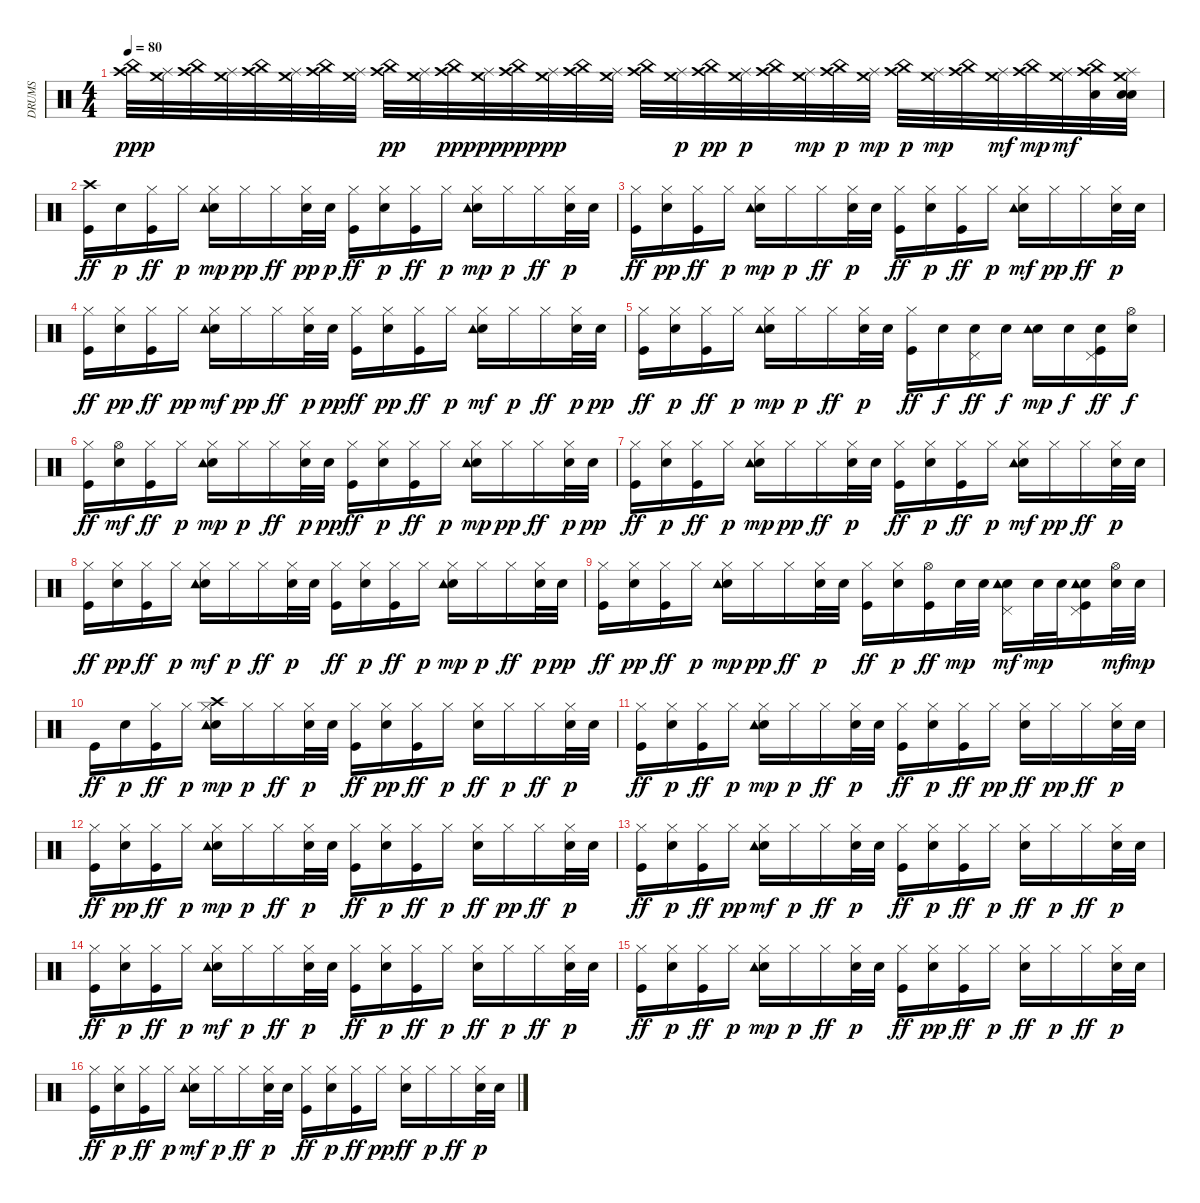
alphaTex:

\track ("DRUMS" "DRUMS") {instrument percussion}
\staff {score}
\articulation defaults
\ts (4 4)
\tempo 80
\clef neutral
\ks c
("Crash high (hit)" "China (hit)").32{dy ppp} ("Splash (hit)" "Crash medium (hit)").32 ("Crash high (hit)" "China (hit)").32 ("Splash (hit)" "Crash medium (hit)").32 ("Crash high (hit)" "China (hit)").32 ("Splash (hit)" "Crash medium (hit)").32 ("Crash high (hit)" "China (hit)").32 ("Splash (hit)" "Crash medium (hit)").32 ("Crash high (hit)" "China (hit)").32{dy pp} ("Splash (hit)" "Crash medium (hit)").32 ("Crash high (hit)" "China (hit)").32{dy ppp} ("Splash (hit)" "Crash medium (hit)").32{dy pp} ("Crash high (hit)" "China (hit)").32{dy ppp} ("Splash (hit)" "Crash medium (hit)").32{dy pp} ("Crash high (hit)" "China (hit)").32 ("Splash (hit)" "Crash medium (hit)").32 ("Crash high (hit)" "China (hit)").32 ("Splash (hit)" "Crash medium (hit)").32{dy p} ("Crash high (hit)" "China (hit)").32{dy pp} ("Splash (hit)" "Crash medium (hit)").32{dy p} ("Crash high (hit)" "China (hit)").32 ("Splash (hit)" "Crash medium (hit)").32{dy mp} ("Crash high (hit)" "China (hit)").32{dy p} ("Splash (hit)" "Crash medium (hit)").32{dy mp} ("Crash high (hit)" "China (hit)").32{dy p} ("Splash (hit)" "Crash medium (hit)").32{dy mp} ("Crash high (hit)" "China (hit)").32 ("Splash (hit)" "Crash medium (hit)").32{dy mf} ("Crash high (hit)" "China (hit)").32{dy mp} ("Splash (hit)" "Crash medium (hit)").32{dy mf} ("Snare (hit) 2" "Crash high (hit)" "China (hit)").32 ("Snare (hit) 2" "Splash (hit)" "Snare (hit) 2" "Crash medium (hit)").32 |
("Kick (hit)" "Crash high (hit)").16{dy ff} "Snare (hit) 2".16{dy p} ("Kick (hit)" "Hi-Hat (closed)").16{dy ff} "Hi-Hat (closed)".16{dy p} ("Snare (hit) 2" "Hi-Hat (closed)" "Tambourine (hit)").16{dy mp} "Hi-Hat (closed)".16{dy pp} "Hi-Hat (closed)".16{dy ff} ("Hi-Hat (closed)" "Snare (hit) 2").32{dy pp} "Snare (hit) 2".32{dy p} ("Kick (hit)" "Hi-Hat (closed)").16{dy ff} ("Snare (hit) 2" "Hi-Hat (closed)").16{dy p} ("Kick (hit)" "Hi-Hat (closed)").16{dy ff} "Hi-Hat (closed)".16{dy p} ("Snare (hit) 2" "Hi-Hat (closed)" "Tambourine (hit)").16{dy mp} "Hi-Hat (closed)".16{dy p} "Hi-Hat (closed)".16{dy ff} ("Hi-Hat (closed)" "Snare (hit) 2").32{dy p} "Snare (hit) 2".32 |
("Kick (hit)" "Hi-Hat (closed)").16{dy ff} ("Snare (hit) 2" "Hi-Hat (closed)").16{dy pp} ("Kick (hit)" "Hi-Hat (closed)").16{dy ff} "Hi-Hat (closed)".16{dy p} ("Snare (hit) 2" "Hi-Hat (closed)" "Tambourine (hit)").16{dy mp} "Hi-Hat (closed)".16{dy p} "Hi-Hat (closed)".16{dy ff} ("Hi-Hat (closed)" "Snare (hit) 2").32{dy p} "Snare (hit) 2".32 ("Kick (hit)" "Hi-Hat (closed)").16{dy ff} ("Snare (hit) 2" "Hi-Hat (closed)").16{dy p} ("Kick (hit)" "Hi-Hat (closed)").16{dy ff} "Hi-Hat (closed)".16{dy p} ("Snare (hit) 2" "Hi-Hat (closed)" "Tambourine (hit)").16{dy mf} "Hi-Hat (closed)".16{dy pp} "Hi-Hat (closed)".16{dy ff} ("Hi-Hat (closed)" "Snare (hit) 2").32{dy p} "Snare (hit) 2".32 |
("Kick (hit)" "Hi-Hat (closed)").16{dy ff} ("Snare (hit) 2" "Hi-Hat (closed)").16{dy pp} ("Kick (hit)" "Hi-Hat (closed)").16{dy ff} "Hi-Hat (closed)".16{dy pp} ("Snare (hit) 2" "Hi-Hat (closed)" "Tambourine (hit)").16{dy mf} "Hi-Hat (closed)".16{dy pp} "Hi-Hat (closed)".16{dy ff} ("Hi-Hat (closed)" "Snare (hit) 2").32{dy p} "Snare (hit) 2".32{dy pp} ("Kick (hit)" "Hi-Hat (closed)").16{dy ff} ("Snare (hit) 2" "Hi-Hat (closed)").16{dy pp} ("Kick (hit)" "Hi-Hat (closed)").16{dy ff} "Hi-Hat (closed)".16{dy p} ("Snare (hit) 2" "Hi-Hat (closed)" "Tambourine (hit)").16{dy mf} "Hi-Hat (closed)".16{dy p} "Hi-Hat (closed)".16{dy ff} ("Hi-Hat (closed)" "Snare (hit) 2").32{dy p} "Snare (hit) 2".32{dy pp} |
("Kick (hit)" "Hi-Hat (closed)").16{dy ff} ("Snare (hit) 2" "Hi-Hat (closed)").16{dy p} ("Kick (hit)" "Hi-Hat (closed)").16{dy ff} "Hi-Hat (closed)".16{dy p} ("Snare (hit) 2" "Hi-Hat (closed)" "Tambourine (hit)").16{dy mp} "Hi-Hat (closed)".16{dy p} "Hi-Hat (closed)".16{dy ff} ("Hi-Hat (closed)" "Snare (hit) 2").32{dy p} "Snare (hit) 2".32 ("Kick (hit)" "Hi-Hat (closed)").16{dy ff} "Snare (hit) 2".16{dy f} ("Snare (hit) 2" "Pedal Hi-Hat (hit)").16{dy ff} "Snare (hit) 2".16{dy f} ("Snare (hit) 2" "Tambourine (hit)").16{dy mp} "Snare (hit) 2".16{dy f} ("Kick (hit)" "Snare (hit) 2" "Pedal Hi-Hat (hit)").16{dy ff} ("Snare (hit) 2" "Hi-Hat (open)").16{dy f} |
("Kick (hit)" "Hi-Hat (closed)").16{dy ff} ("Snare (hit) 2" "Hi-Hat (open)").16{dy mf} ("Kick (hit)" "Hi-Hat (closed)").16{dy ff} "Hi-Hat (closed)".16{dy p} ("Snare (hit) 2" "Hi-Hat (closed)" "Tambourine (hit)").16{dy mp} "Hi-Hat (closed)".16{dy p} "Hi-Hat (closed)".16{dy ff} ("Hi-Hat (closed)" "Snare (hit) 2").32{dy p} "Snare (hit) 2".32{dy pp} ("Kick (hit)" "Hi-Hat (closed)").16{dy ff} ("Snare (hit) 2" "Hi-Hat (closed)").16{dy p} ("Kick (hit)" "Hi-Hat (closed)").16{dy ff} "Hi-Hat (closed)".16{dy p} ("Snare (hit) 2" "Hi-Hat (closed)" "Tambourine (hit)").16{dy mp} "Hi-Hat (closed)".16{dy pp} "Hi-Hat (closed)".16{dy ff} ("Hi-Hat (closed)" "Snare (hit) 2").32{dy p} "Snare (hit) 2".32{dy pp} |
("Kick (hit)" "Hi-Hat (closed)").16{dy ff} ("Snare (hit) 2" "Hi-Hat (closed)").16{dy p} ("Kick (hit)" "Hi-Hat (closed)").16{dy ff} "Hi-Hat (closed)".16{dy p} ("Snare (hit) 2" "Hi-Hat (closed)" "Tambourine (hit)").16{dy mp} "Hi-Hat (closed)".16{dy pp} "Hi-Hat (closed)".16{dy ff} ("Hi-Hat (closed)" "Snare (hit) 2").32{dy p} "Snare (hit) 2".32 ("Kick (hit)" "Hi-Hat (closed)").16{dy ff} ("Snare (hit) 2" "Hi-Hat (closed)").16{dy p} ("Kick (hit)" "Hi-Hat (closed)").16{dy ff} "Hi-Hat (closed)".16{dy p} ("Snare (hit) 2" "Hi-Hat (closed)" "Tambourine (hit)").16{dy mf} "Hi-Hat (closed)".16{dy pp} "Hi-Hat (closed)".16{dy ff} ("Hi-Hat (closed)" "Snare (hit) 2").32{dy p} "Snare (hit) 2".32 |
("Kick (hit)" "Hi-Hat (closed)").16{dy ff} ("Snare (hit) 2" "Hi-Hat (closed)").16{dy pp} ("Kick (hit)" "Hi-Hat (closed)").16{dy ff} "Hi-Hat (closed)".16{dy p} ("Snare (hit) 2" "Hi-Hat (closed)" "Tambourine (hit)").16{dy mf} "Hi-Hat (closed)".16{dy p} "Hi-Hat (closed)".16{dy ff} ("Hi-Hat (closed)" "Snare (hit) 2").32{dy p} "Snare (hit) 2".32 ("Kick (hit)" "Hi-Hat (closed)").16{dy ff} ("Snare (hit) 2" "Hi-Hat (closed)").16{dy p} ("Kick (hit)" "Hi-Hat (closed)").16{dy ff} "Hi-Hat (closed)".16{dy p} ("Snare (hit) 2" "Hi-Hat (closed)" "Tambourine (hit)").16{dy mp} "Hi-Hat (closed)".16{dy p} "Hi-Hat (closed)".16{dy ff} ("Hi-Hat (closed)" "Snare (hit) 2").32{dy p} "Snare (hit) 2".32{dy pp} |
("Kick (hit)" "Hi-Hat (closed)").16{dy ff} ("Snare (hit) 2" "Hi-Hat (closed)").16{dy pp} ("Kick (hit)" "Hi-Hat (closed)").16{dy ff} "Hi-Hat (closed)".16{dy p} ("Snare (hit) 2" "Hi-Hat (closed)" "Tambourine (hit)").16{dy mp} "Hi-Hat (closed)".16{dy pp} "Hi-Hat (closed)".16{dy ff} ("Hi-Hat (closed)" "Snare (hit) 2").32{dy p} "Snare (hit) 2".32 ("Kick (hit)" "Hi-Hat (closed)").16{dy ff} ("Snare (hit) 2" "Hi-Hat (closed)").16{dy p} ("Kick (hit)" "Hi-Hat (open)").16{dy ff} "Snare (hit) 2".32{dy mp} "Snare (hit) 2".32 ("Snare (hit) 2" "Pedal Hi-Hat (hit)" "Tambourine (hit)").16{dy mf} "Snare (hit) 2".32{dy mp} "Snare (hit) 2".32 ("Kick (hit)" "Snare (hit) 2" "Pedal Hi-Hat (hit)" "Tambourine (hit)").16 ("Hi-Hat (open)" "Snare (hit) 2").32{dy mf} "Snare (hit) 2".32{dy mp} |
"Kick (hit)".16{dy ff} "Snare (hit) 2".16{dy p} ("Kick (hit)" "Hi-Hat (closed)").16{dy ff} "Hi-Hat (closed)".16{dy p} ("Snare (hit) 2" "Hi-Hat (closed)" "Crash high (hit)" "Tambourine (hit)").16{dy mp} "Hi-Hat (closed)".16{dy p} "Hi-Hat (closed)".16{dy ff} ("Hi-Hat (closed)" "Snare (hit) 2").32{dy p} "Snare (hit) 2".32 ("Kick (hit)" "Hi-Hat (closed)").16{dy ff} ("Snare (hit) 2" "Hi-Hat (closed)").16{dy pp} ("Kick (hit)" "Hi-Hat (closed)").16{dy ff} "Hi-Hat (closed)".16{dy p} ("Snare (hit) 2" "Hi-Hat (closed)").16{dy ff} "Hi-Hat (closed)".16{dy p} "Hi-Hat (closed)".16{dy ff} ("Hi-Hat (closed)" "Snare (hit) 2").32{dy p} "Snare (hit) 2".32 |
("Kick (hit)" "Hi-Hat (closed)").16{dy ff} ("Snare (hit) 2" "Hi-Hat (closed)").16{dy p} ("Kick (hit)" "Hi-Hat (closed)").16{dy ff} "Hi-Hat (closed)".16{dy p} ("Snare (hit) 2" "Hi-Hat (closed)" "Tambourine (hit)").16{dy mp} "Hi-Hat (closed)".16{dy p} "Hi-Hat (closed)".16{dy ff} ("Hi-Hat (closed)" "Snare (hit) 2").32{dy p} "Snare (hit) 2".32 ("Kick (hit)" "Hi-Hat (closed)").16{dy ff} ("Snare (hit) 2" "Hi-Hat (closed)").16{dy p} ("Kick (hit)" "Hi-Hat (closed)").16{dy ff} "Hi-Hat (closed)".16{dy pp} ("Snare (hit) 2" "Hi-Hat (closed)").16{dy ff} "Hi-Hat (closed)".16{dy pp} "Hi-Hat (closed)".16{dy ff} ("Hi-Hat (closed)" "Snare (hit) 2").32{dy p} "Snare (hit) 2".32 |
("Kick (hit)" "Hi-Hat (closed)").16{dy ff} ("Snare (hit) 2" "Hi-Hat (closed)").16{dy pp} ("Kick (hit)" "Hi-Hat (closed)").16{dy ff} "Hi-Hat (closed)".16{dy p} ("Snare (hit) 2" "Hi-Hat (closed)" "Tambourine (hit)").16{dy mp} "Hi-Hat (closed)".16{dy p} "Hi-Hat (closed)".16{dy ff} ("Hi-Hat (closed)" "Snare (hit) 2").32{dy p} "Snare (hit) 2".32 ("Kick (hit)" "Hi-Hat (closed)").16{dy ff} ("Snare (hit) 2" "Hi-Hat (closed)").16{dy p} ("Kick (hit)" "Hi-Hat (closed)").16{dy ff} "Hi-Hat (closed)".16{dy p} ("Snare (hit) 2" "Hi-Hat (closed)").16{dy ff} "Hi-Hat (closed)".16{dy pp} "Hi-Hat (closed)".16{dy ff} ("Hi-Hat (closed)" "Snare (hit) 2").32{dy p} "Snare (hit) 2".32 |
("Kick (hit)" "Hi-Hat (closed)").16{dy ff} ("Snare (hit) 2" "Hi-Hat (closed)").16{dy p} ("Kick (hit)" "Hi-Hat (closed)").16{dy ff} "Hi-Hat (closed)".16{dy pp} ("Snare (hit) 2" "Hi-Hat (closed)" "Tambourine (hit)").16{dy mf} "Hi-Hat (closed)".16{dy p} "Hi-Hat (closed)".16{dy ff} ("Hi-Hat (closed)" "Snare (hit) 2").32{dy p} "Snare (hit) 2".32 ("Kick (hit)" "Hi-Hat (closed)").16{dy ff} ("Snare (hit) 2" "Hi-Hat (closed)").16{dy p} ("Kick (hit)" "Hi-Hat (closed)").16{dy ff} "Hi-Hat (closed)".16{dy p} ("Snare (hit) 2" "Hi-Hat (closed)").16{dy ff} "Hi-Hat (closed)".16{dy p} "Hi-Hat (closed)".16{dy ff} ("Hi-Hat (closed)" "Snare (hit) 2").32{dy p} "Snare (hit) 2".32 |
("Kick (hit)" "Hi-Hat (closed)").16{dy ff} ("Snare (hit) 2" "Hi-Hat (closed)").16{dy p} ("Kick (hit)" "Hi-Hat (closed)").16{dy ff} "Hi-Hat (closed)".16{dy p} ("Snare (hit) 2" "Hi-Hat (closed)" "Tambourine (hit)").16{dy mf} "Hi-Hat (closed)".16{dy p} "Hi-Hat (closed)".16{dy ff} ("Hi-Hat (closed)" "Snare (hit) 2").32{dy p} "Snare (hit) 2".32 ("Kick (hit)" "Hi-Hat (closed)").16{dy ff} ("Snare (hit) 2" "Hi-Hat (closed)").16{dy p} ("Kick (hit)" "Hi-Hat (closed)").16{dy ff} "Hi-Hat (closed)".16{dy p} ("Snare (hit) 2" "Hi-Hat (closed)").16{dy ff} "Hi-Hat (closed)".16{dy p} "Hi-Hat (closed)".16{dy ff} ("Hi-Hat (closed)" "Snare (hit) 2").32{dy p} "Snare (hit) 2".32 |
("Kick (hit)" "Hi-Hat (closed)").16{dy ff} ("Snare (hit) 2" "Hi-Hat (closed)").16{dy p} ("Kick (hit)" "Hi-Hat (closed)").16{dy ff} "Hi-Hat (closed)".16{dy p} ("Snare (hit) 2" "Hi-Hat (closed)" "Tambourine (hit)").16{dy mp} "Hi-Hat (closed)".16{dy p} "Hi-Hat (closed)".16{dy ff} ("Hi-Hat (closed)" "Snare (hit) 2").32{dy p} "Snare (hit) 2".32 ("Kick (hit)" "Hi-Hat (closed)").16{dy ff} ("Snare (hit) 2" "Hi-Hat (closed)").16{dy pp} ("Kick (hit)" "Hi-Hat (closed)").16{dy ff} "Hi-Hat (closed)".16{dy p} ("Snare (hit) 2" "Hi-Hat (closed)").16{dy ff} "Hi-Hat (closed)".16{dy p} "Hi-Hat (closed)".16{dy ff} ("Hi-Hat (closed)" "Snare (hit) 2").32{dy p} "Snare (hit) 2".32 |
("Kick (hit)" "Hi-Hat (closed)").16{dy ff} ("Snare (hit) 2" "Hi-Hat (closed)").16{dy p} ("Kick (hit)" "Hi-Hat (closed)").16{dy ff} "Hi-Hat (closed)".16{dy p} ("Snare (hit) 2" "Hi-Hat (closed)" "Tambourine (hit)").16{dy mf} "Hi-Hat (closed)".16{dy p} "Hi-Hat (closed)".16{dy ff} ("Hi-Hat (closed)" "Snare (hit) 2").32{dy p} "Snare (hit) 2".32 ("Kick (hit)" "Hi-Hat (closed)").16{dy ff} ("Snare (hit) 2" "Hi-Hat (closed)").16{dy p} ("Kick (hit)" "Hi-Hat (closed)").16{dy ff} "Hi-Hat (closed)".16{dy pp} ("Snare (hit) 2" "Hi-Hat (closed)").16{dy ff} "Hi-Hat (closed)".16{dy p} "Hi-Hat (closed)".16{dy ff} ("Hi-Hat (closed)" "Snare (hit) 2").32{dy p} "Snare (hit) 2".32
